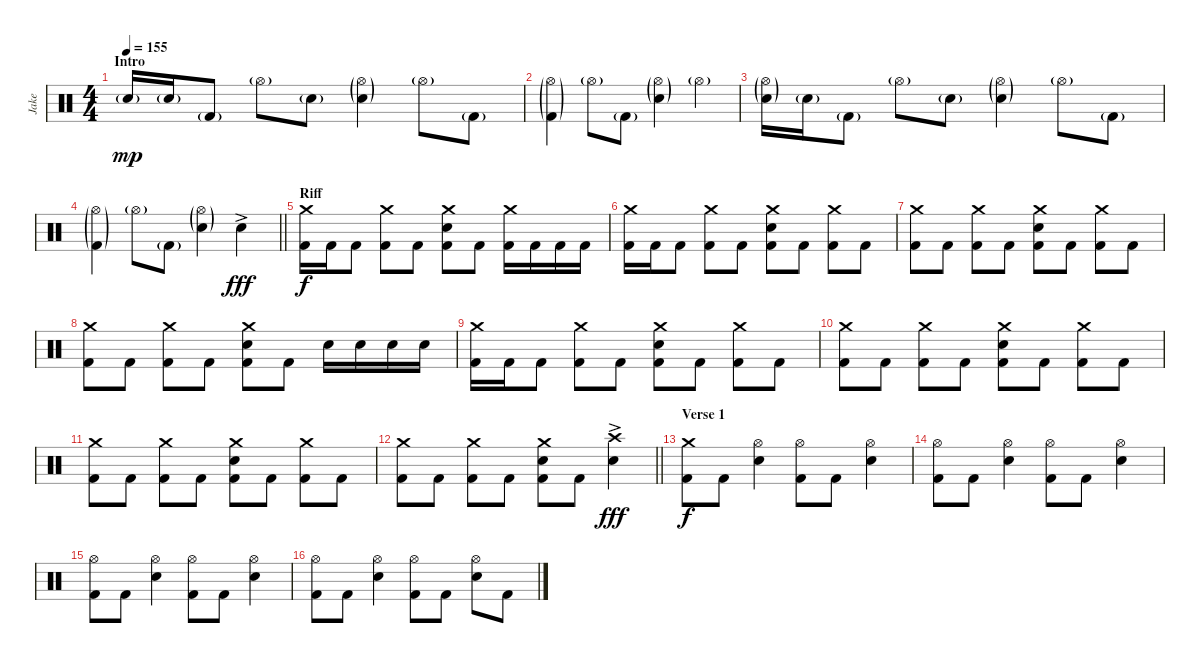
\track ("Jake" "Jake") {instrument percussion}
\staff {score}
\articulation defaults
\ts (4 4)
\section ("" "Intro")
\tempo 155
\clef neutral
\ks c "Electric Snare (hit)"{g}.16{dy mp} "Electric Snare (hit)"{g}.16 "Kick (hit) 2"{g}.8 "Hi-Hat (open)"{g}.8 "Electric Snare (hit)"{g}.8
("Hi-Hat (open)"{g} "Electric Snare (hit)"{g}).4 "Hi-Hat (open)"{g}.8 "Kick (hit) 2"{g}.8 |
("Hi-Hat (open)"{g} "Kick (hit) 2"{g}).4 "Hi-Hat (open)"{g}.8 "Kick (hit) 2"{g}.8 ("Hi-Hat (open)"{g} "Electric Snare (hit)"{g}).4 "Hi-Hat (open)"{g}.4 |
("Hi-Hat (open)"{g} "Electric Snare (hit)"{g}).16 "Electric Snare (hit)"{g}.16 "Kick (hit) 2"{g}.8 "Hi-Hat (open)"{g}.8 "Electric Snare (hit)"{g}.8 ("Hi-Hat (open)"{g} "Electric Snare (hit)"{g}).4 "Hi-Hat (open)"{g}.8 "Kick (hit) 2"{g}.8 |
\barLineRight lightlight
("Hi-Hat (open)"{g} "Kick (hit) 2"{g}).4 "Hi-Hat (open)"{g}.8 "Kick (hit) 2"{g}.8 ("Hi-Hat (open)"{g} "Electric Snare (hit)"{g}).4 "Electric Snare (hit)"{ac}.4{dy fff} |
\section ("" "Riff")
("Crash medium (hit)" "Kick (hit) 2").16{dy f} "Kick (hit) 2".16 "Kick (hit) 2".8 ("Crash medium (hit)" "Kick (hit) 2").8 "Kick (hit) 2".8 ("Crash medium (hit)" "Electric Snare (hit)" "Kick (hit) 2").8 "Kick (hit) 2".8 ("Crash medium (hit)" "Kick (hit) 2").16 "Kick (hit) 2".16 "Kick (hit) 2".16 "Kick (hit) 2".16 |
("Crash medium (hit)" "Kick (hit) 2").16 "Kick (hit) 2".16 "Kick (hit) 2".8 ("Crash medium (hit)" "Kick (hit) 2").8 "Kick (hit) 2".8 ("Crash medium (hit)" "Electric Snare (hit)" "Kick (hit) 2").8 "Kick (hit) 2".8 ("Crash medium (hit)" "Kick (hit) 2").8 "Kick (hit) 2".8 |
("Crash medium (hit)" "Kick (hit) 2").8 "Kick (hit) 2".8 ("Crash medium (hit)" "Kick (hit) 2").8 "Kick (hit) 2".8 ("Crash medium (hit)" "Electric Snare (hit)" "Kick (hit) 2").8 "Kick (hit) 2".8 ("Crash medium (hit)" "Kick (hit) 2").8 "Kick (hit) 2".8 |
("Crash medium (hit)" "Kick (hit) 2").8 "Kick (hit) 2".8 ("Crash medium (hit)" "Kick (hit) 2").8 "Kick (hit) 2".8 ("Crash medium (hit)" "Electric Snare (hit)" "Kick (hit) 2").8 "Kick (hit) 2".8 "Electric Snare (hit)".16 "Electric Snare (hit)".16 "Electric Snare (hit)".16 "Electric Snare (hit)".16 |
("Crash medium (hit)" "Kick (hit) 2").16 "Kick (hit) 2".16 "Kick (hit) 2".8 ("Crash medium (hit)" "Kick (hit) 2").8 "Kick (hit) 2".8 ("Crash medium (hit)" "Electric Snare (hit)" "Kick (hit) 2").8 "Kick (hit) 2".8 ("Crash medium (hit)" "Kick (hit) 2").8 "Kick (hit) 2".8 |
("Crash medium (hit)" "Kick (hit) 2").8 "Kick (hit) 2".8 ("Crash medium (hit)" "Kick (hit) 2").8 "Kick (hit) 2".8 ("Crash medium (hit)" "Electric Snare (hit)" "Kick (hit) 2").8 "Kick (hit) 2".8 ("Crash medium (hit)" "Kick (hit) 2").8 "Kick (hit) 2".8 |
("Crash medium (hit)" "Kick (hit) 2").8 "Kick (hit) 2".8 ("Crash medium (hit)" "Kick (hit) 2").8 "Kick (hit) 2".8 ("Crash medium (hit)" "Electric Snare (hit)" "Kick (hit) 2").8 "Kick (hit) 2".8 ("Crash medium (hit)" "Kick (hit) 2").8 "Kick (hit) 2".8 |
\barLineRight lightlight
("Crash medium (hit)" "Kick (hit) 2").8 "Kick (hit) 2".8 ("Crash medium (hit)" "Kick (hit) 2").8 "Kick (hit) 2".8 ("Crash medium (hit)" "Electric Snare (hit)" "Kick (hit) 2").8 "Kick (hit) 2".8 ("Crash high (hit)" "Electric Snare (hit)"{ac}).4{dy fff} |
\section ("" "Verse 1")
("Crash medium (hit)" "Kick (hit) 2").8{dy f} "Kick (hit) 2".8 ("Hi-Hat (open)" "Electric Snare (hit)").4 ("Hi-Hat (open)" "Kick (hit) 2").8 "Kick (hit) 2".8 ("Hi-Hat (open)" "Electric Snare (hit)").4 |
("Hi-Hat (open)" "Kick (hit) 2").8 "Kick (hit) 2".8 ("Hi-Hat (open)" "Electric Snare (hit)").4 ("Hi-Hat (open)" "Kick (hit) 2").8 "Kick (hit) 2".8 ("Hi-Hat (open)" "Electric Snare (hit)").4 |
("Hi-Hat (open)" "Kick (hit) 2").8 "Kick (hit) 2".8 ("Hi-Hat (open)" "Electric Snare (hit)").4 ("Hi-Hat (open)" "Kick (hit) 2").8 "Kick (hit) 2".8 ("Hi-Hat (open)" "Electric Snare (hit)").4 |
("Hi-Hat (open)" "Kick (hit) 2").8 "Kick (hit) 2".8 ("Hi-Hat (open)" "Electric Snare (hit)").4 ("Hi-Hat (open)" "Kick (hit) 2").8 "Kick (hit) 2".8 ("Hi-Hat (open)" "Electric Snare (hit)").8 "Kick (hit) 2".8
